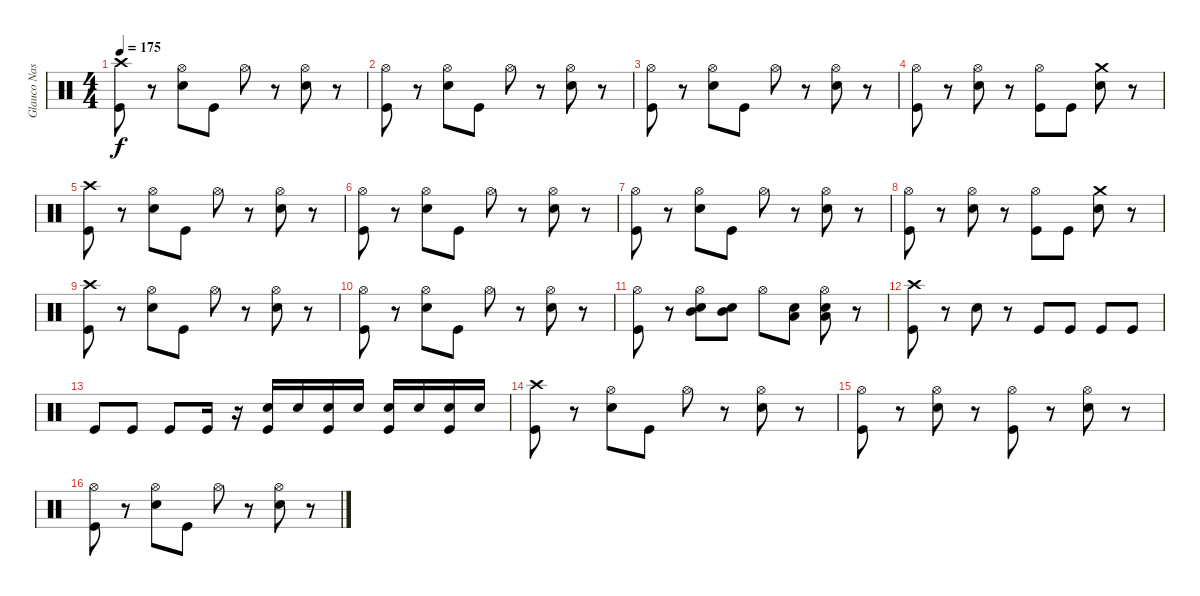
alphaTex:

\track ("Glauco Nastácia" "Glauco Nas") {instrument percussion}
\staff {score}
\articulation defaults
\ts (4 4)
\tempo 175
\clef neutral
\ks c
("Crash high (hit)" "Kick (hit)").8{dy f} r.8 ("Hi-Hat (open)" "Electric Snare (hit)").8 "Kick (hit)".8 "Hi-Hat (open)".8 r.8 ("Hi-Hat (open)" "Electric Snare (hit)").8 r.8 |
("Hi-Hat (open)" "Kick (hit)").8 r.8 ("Hi-Hat (open)" "Electric Snare (hit)").8 "Kick (hit)".8 "Hi-Hat (open)".8 r.8 ("Hi-Hat (open)" "Electric Snare (hit)").8 r.8 |
("Hi-Hat (open)" "Kick (hit)").8 r.8 ("Hi-Hat (open)" "Electric Snare (hit)").8 "Kick (hit)".8 "Hi-Hat (open)".8 r.8 ("Hi-Hat (open)" "Electric Snare (hit)").8 r.8 |
("Hi-Hat (open)" "Kick (hit)").8 r.8 ("Hi-Hat (open)" "Electric Snare (hit)").8 r.8 ("Hi-Hat (open)" "Kick (hit)").8 "Kick (hit)".8 ("Crash medium (hit)" "Electric Snare (hit)").8 r.8 |
("Crash high (hit)" "Kick (hit)").8 r.8 ("Hi-Hat (open)" "Electric Snare (hit)").8 "Kick (hit)".8 "Hi-Hat (open)".8 r.8 ("Hi-Hat (open)" "Electric Snare (hit)").8 r.8 |
("Hi-Hat (open)" "Kick (hit)").8 r.8 ("Hi-Hat (open)" "Electric Snare (hit)").8 "Kick (hit)".8 "Hi-Hat (open)".8 r.8 ("Hi-Hat (open)" "Electric Snare (hit)").8 r.8 |
("Hi-Hat (open)" "Kick (hit)").8 r.8 ("Hi-Hat (open)" "Electric Snare (hit)").8 "Kick (hit)".8 "Hi-Hat (open)".8 r.8 ("Hi-Hat (open)" "Electric Snare (hit)").8 r.8 |
("Hi-Hat (open)" "Kick (hit)").8 r.8 ("Hi-Hat (open)" "Electric Snare (hit)").8 r.8 ("Hi-Hat (open)" "Kick (hit)").8 "Kick (hit)".8 ("Crash medium (hit)" "Electric Snare (hit)").8 r.8 |
("Crash high (hit)" "Kick (hit)").8 r.8 ("Hi-Hat (open)" "Electric Snare (hit)").8 "Kick (hit)".8 "Hi-Hat (open)".8 r.8 ("Hi-Hat (open)" "Electric Snare (hit)").8 r.8 |
("Hi-Hat (open)" "Kick (hit)").8 r.8 ("Hi-Hat (open)" "Electric Snare (hit)").8 "Kick (hit)".8 "Hi-Hat (open)".8 r.8 ("Hi-Hat (open)" "Electric Snare (hit)").8 r.8 |
("Hi-Hat (open)" "Kick (hit)").8 r.8 ("Hi-Hat (open)" "Mid Tom (hit)" "Electric Snare (hit)").8 ("Mid Tom (hit)" "Electric Snare (hit)").8 "Hi-Hat (open)".8 ("Low Tom (hit)" "Electric Snare (hit)").8 ("Hi-Hat (open)" "Low Tom (hit)" "Electric Snare (hit)").8 r.8 |
("Crash high (hit)" "Kick (hit)").8 r.8 "Electric Snare (hit)".8 r.8 "Kick (hit)".8 "Kick (hit)".8 "Kick (hit)".8 "Kick (hit)".8 |
"Kick (hit)".8 "Kick (hit)".8 "Kick (hit)".8 "Kick (hit)".16 r.16 ("Electric Snare (hit)" "Kick (hit)").16 "Electric Snare (hit)".16 ("Electric Snare (hit)" "Kick (hit)").16 "Electric Snare (hit)".16 ("Electric Snare (hit)" "Kick (hit)").16 "Electric Snare (hit)".16 ("Electric Snare (hit)" "Kick (hit)").16 "Electric Snare (hit)".16 |
("Crash high (hit)" "Kick (hit)").8 r.8 ("Hi-Hat (open)" "Electric Snare (hit)").8 "Kick (hit)".8 "Hi-Hat (open)".8 r.8 ("Hi-Hat (open)" "Electric Snare (hit)").8 r.8 |
("Hi-Hat (open)" "Kick (hit)").8 r.8 ("Hi-Hat (open)" "Electric Snare (hit)").8 r.8 ("Hi-Hat (open)" "Kick (hit)").8 r.8 ("Hi-Hat (open)" "Electric Snare (hit)").8 r.8 |
("Hi-Hat (open)" "Kick (hit)").8 r.8 ("Hi-Hat (open)" "Electric Snare (hit)").8 "Kick (hit)".8 "Hi-Hat (open)".8 r.8 ("Hi-Hat (open)" "Electric Snare (hit)").8 r.8
